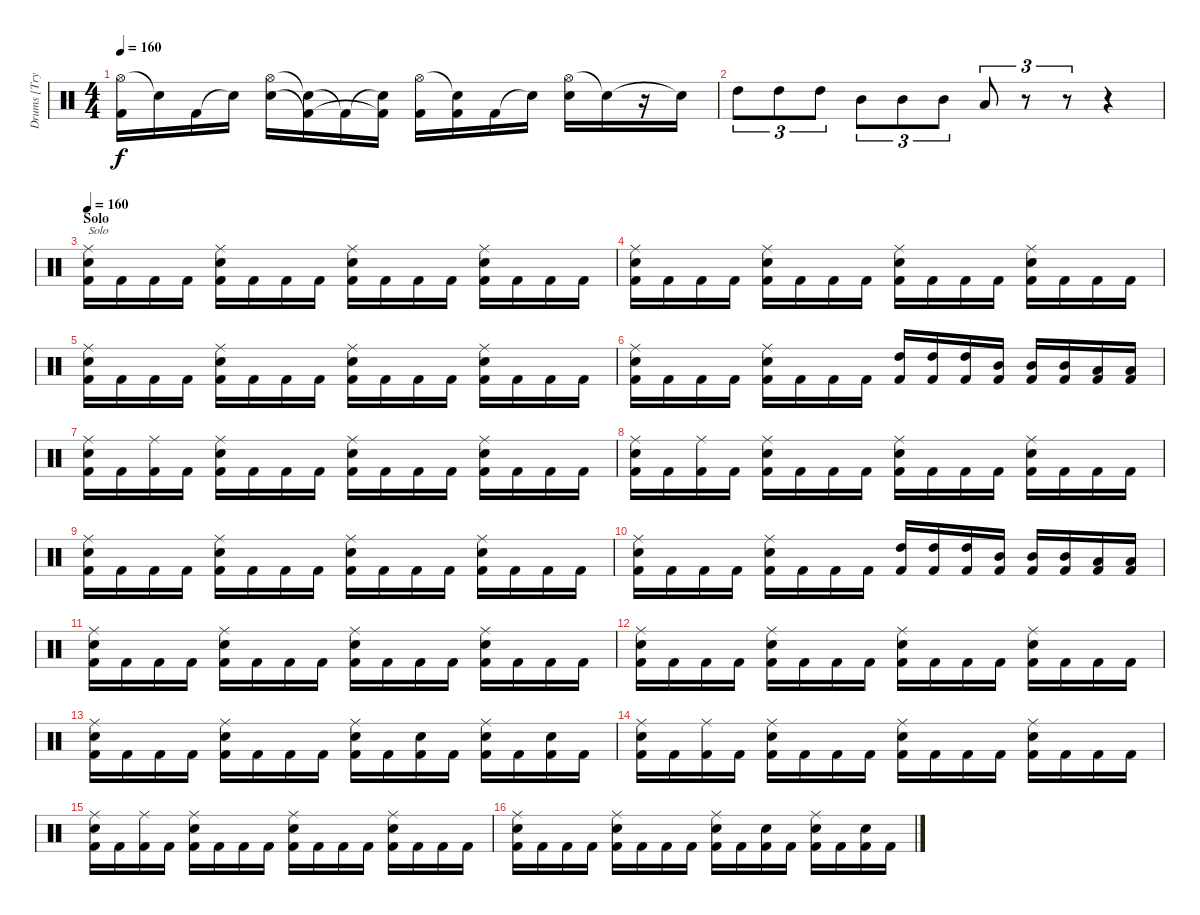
\track ("Drums [Trym]" "Drums [Try") {instrument percussion}
\staff {score}
\articulation defaults
\ts (4 4)
\tempo 160
\clef neutral
\ks c
("Hi-Hat (open)" "Kick (hit) 2").16{dy f} "Snare (hit)"{t}.16 "Kick (hit) 2".16 "Snare (hit)"{t}.16 ("Hi-Hat (open)" "Electric Snare (hit)").16 ("Snare (hit)"{t} "Kick (hit) 2"{t}).16 "Kick (hit) 2"{t}.16 ("Snare (hit)"{t} "Kick (hit) 2"{t}).16 ("Hi-Hat (open)" "Kick (hit) 2").16 ("Snare (hit)"{t} "Kick (hit) 2").16 "Kick (hit) 2".16 "Snare (hit)"{t}.16 ("Hi-Hat (open)" "Electric Snare (hit)").16 "Snare (hit)"{t}.16 r.16 "Snare (hit)"{t}.16 |
"High Tom (hit)".8{tu (3 2)} "High Tom (hit)".8{tu (3 2)} "High Tom (hit)".8{tu (3 2)} "Mid Tom (hit)".8{tu (3 2)} "Mid Tom (hit)".8{tu (3 2)} "Mid Tom (hit)".8{tu (3 2)} "Low Tom (hit)".8{tu (3 2)} r.8{tu (3 2)} r.8{tu (3 2)} r.4 |
\section ("" "Solo")
\tempo 160
("Ride (middle)" "Electric Snare (hit)" "Kick (hit) 2").16{txt "Solo"} "Kick (hit) 2".16 "Kick (hit) 2".16 "Kick (hit) 2".16 ("Ride (middle)" "Electric Snare (hit)" "Kick (hit) 2").16 "Kick (hit) 2".16 "Kick (hit) 2".16 "Kick (hit) 2".16 ("Ride (middle)" "Electric Snare (hit)" "Kick (hit) 2").16 "Kick (hit) 2".16 "Kick (hit) 2".16 "Kick (hit) 2".16 ("Ride (middle)" "Electric Snare (hit)" "Kick (hit) 2").16 "Kick (hit) 2".16 "Kick (hit) 2".16 "Kick (hit) 2".16 |
("Ride (middle)" "Electric Snare (hit)" "Kick (hit) 2").16 "Kick (hit) 2".16 "Kick (hit) 2".16 "Kick (hit) 2".16 ("Ride (middle)" "Electric Snare (hit)" "Kick (hit) 2").16 "Kick (hit) 2".16 "Kick (hit) 2".16 "Kick (hit) 2".16 ("Ride (middle)" "Electric Snare (hit)" "Kick (hit) 2").16 "Kick (hit) 2".16 "Kick (hit) 2".16 "Kick (hit) 2".16 ("Ride (middle)" "Electric Snare (hit)" "Kick (hit) 2").16 "Kick (hit) 2".16 "Kick (hit) 2".16 "Kick (hit) 2".16 |
("Ride (middle)" "Electric Snare (hit)" "Kick (hit) 2").16 "Kick (hit) 2".16 "Kick (hit) 2".16 "Kick (hit) 2".16 ("Ride (middle)" "Electric Snare (hit)" "Kick (hit) 2").16 "Kick (hit) 2".16 "Kick (hit) 2".16 "Kick (hit) 2".16 ("Ride (middle)" "Electric Snare (hit)" "Kick (hit) 2").16 "Kick (hit) 2".16 "Kick (hit) 2".16 "Kick (hit) 2".16 ("Ride (middle)" "Electric Snare (hit)" "Kick (hit) 2").16 "Kick (hit) 2".16 "Kick (hit) 2".16 "Kick (hit) 2".16 |
("Ride (middle)" "Electric Snare (hit)" "Kick (hit) 2").16 "Kick (hit) 2".16 "Kick (hit) 2".16 "Kick (hit) 2".16 ("Ride (middle)" "Electric Snare (hit)" "Kick (hit) 2").16 "Kick (hit) 2".16 "Kick (hit) 2".16 "Kick (hit) 2".16 ("High Tom (hit)" "Kick (hit) 2").16 ("High Tom (hit)" "Kick (hit) 2").16 ("High Tom (hit)" "Kick (hit) 2").16 ("Mid Tom (hit)" "Kick (hit) 2").16 ("Mid Tom (hit)" "Kick (hit) 2").16 ("Mid Tom (hit)" "Kick (hit) 2").16 ("Low Tom (hit)" "Kick (hit) 2").16 ("Low Tom (hit)" "Kick (hit) 2").16 |
("Ride (middle)" "Electric Snare (hit)" "Kick (hit) 2").16 "Kick (hit) 2".16 ("Ride (middle)" "Kick (hit) 2").16 "Kick (hit) 2".16 ("Ride (middle)" "Electric Snare (hit)" "Kick (hit) 2").16 "Kick (hit) 2".16 "Kick (hit) 2".16 "Kick (hit) 2".16 ("Ride (middle)" "Electric Snare (hit)" "Kick (hit) 2").16 "Kick (hit) 2".16 "Kick (hit) 2".16 "Kick (hit) 2".16 ("Ride (middle)" "Electric Snare (hit)" "Kick (hit) 2").16 "Kick (hit) 2".16 "Kick (hit) 2".16 "Kick (hit) 2".16 |
("Ride (middle)" "Electric Snare (hit)" "Kick (hit) 2").16 "Kick (hit) 2".16 ("Ride (middle)" "Kick (hit) 2").16 "Kick (hit) 2".16 ("Ride (middle)" "Electric Snare (hit)" "Kick (hit) 2").16 "Kick (hit) 2".16 "Kick (hit) 2".16 "Kick (hit) 2".16 ("Ride (middle)" "Electric Snare (hit)" "Kick (hit) 2").16 "Kick (hit) 2".16 "Kick (hit) 2".16 "Kick (hit) 2".16 ("Ride (middle)" "Electric Snare (hit)" "Kick (hit) 2").16 "Kick (hit) 2".16 "Kick (hit) 2".16 "Kick (hit) 2".16 |
("Ride (middle)" "Electric Snare (hit)" "Kick (hit) 2").16 "Kick (hit) 2".16 "Kick (hit) 2".16 "Kick (hit) 2".16 ("Ride (middle)" "Electric Snare (hit)" "Kick (hit) 2").16 "Kick (hit) 2".16 "Kick (hit) 2".16 "Kick (hit) 2".16 ("Ride (middle)" "Electric Snare (hit)" "Kick (hit) 2").16 "Kick (hit) 2".16 "Kick (hit) 2".16 "Kick (hit) 2".16 ("Ride (middle)" "Electric Snare (hit)" "Kick (hit) 2").16 "Kick (hit) 2".16 "Kick (hit) 2".16 "Kick (hit) 2".16 |
("Ride (middle)" "Electric Snare (hit)" "Kick (hit) 2").16 "Kick (hit) 2".16 "Kick (hit) 2".16 "Kick (hit) 2".16 ("Ride (middle)" "Electric Snare (hit)" "Kick (hit) 2").16 "Kick (hit) 2".16 "Kick (hit) 2".16 "Kick (hit) 2".16 ("High Tom (hit)" "Kick (hit) 2").16 ("High Tom (hit)" "Kick (hit) 2").16 ("High Tom (hit)" "Kick (hit) 2").16 ("Mid Tom (hit)" "Kick (hit) 2").16 ("Mid Tom (hit)" "Kick (hit) 2").16 ("Mid Tom (hit)" "Kick (hit) 2").16 ("Low Tom (hit)" "Kick (hit) 2").16 ("Low Tom (hit)" "Kick (hit) 2").16 |
("Ride (middle)" "Electric Snare (hit)" "Kick (hit) 2").16 "Kick (hit) 2".16 "Kick (hit) 2".16 "Kick (hit) 2".16 ("Ride (middle)" "Electric Snare (hit)" "Kick (hit) 2").16 "Kick (hit) 2".16 "Kick (hit) 2".16 "Kick (hit) 2".16 ("Ride (middle)" "Electric Snare (hit)" "Kick (hit) 2").16 "Kick (hit) 2".16 "Kick (hit) 2".16 "Kick (hit) 2".16 ("Ride (middle)" "Electric Snare (hit)" "Kick (hit) 2").16 "Kick (hit) 2".16 "Kick (hit) 2".16 "Kick (hit) 2".16 |
("Ride (middle)" "Electric Snare (hit)" "Kick (hit) 2").16 "Kick (hit) 2".16 "Kick (hit) 2".16 "Kick (hit) 2".16 ("Ride (middle)" "Electric Snare (hit)" "Kick (hit) 2").16 "Kick (hit) 2".16 "Kick (hit) 2".16 "Kick (hit) 2".16 ("Ride (middle)" "Electric Snare (hit)" "Kick (hit) 2").16 "Kick (hit) 2".16 "Kick (hit) 2".16 "Kick (hit) 2".16 ("Ride (middle)" "Electric Snare (hit)" "Kick (hit) 2").16 "Kick (hit) 2".16 "Kick (hit) 2".16 "Kick (hit) 2".16 |
("Ride (middle)" "Electric Snare (hit)" "Kick (hit) 2").16 "Kick (hit) 2".16 "Kick (hit) 2".16 "Kick (hit) 2".16 ("Ride (middle)" "Electric Snare (hit)" "Kick (hit) 2").16 "Kick (hit) 2".16 "Kick (hit) 2".16 "Kick (hit) 2".16 ("Ride (middle)" "Electric Snare (hit)" "Kick (hit) 2").16 "Kick (hit) 2".16 ("Electric Snare (hit)" "Kick (hit) 2").16 "Kick (hit) 2".16 ("Ride (middle)" "Electric Snare (hit)" "Kick (hit) 2").16 "Kick (hit) 2".16 ("Electric Snare (hit)" "Kick (hit) 2").16 "Kick (hit) 2".16 |
("Ride (middle)" "Electric Snare (hit)" "Kick (hit) 2").16 "Kick (hit) 2".16 ("Ride (middle)" "Kick (hit) 2").16 "Kick (hit) 2".16 ("Ride (middle)" "Electric Snare (hit)" "Kick (hit) 2").16 "Kick (hit) 2".16 "Kick (hit) 2".16 "Kick (hit) 2".16 ("Ride (middle)" "Electric Snare (hit)" "Kick (hit) 2").16 "Kick (hit) 2".16 "Kick (hit) 2".16 "Kick (hit) 2".16 ("Ride (middle)" "Electric Snare (hit)" "Kick (hit) 2").16 "Kick (hit) 2".16 "Kick (hit) 2".16 "Kick (hit) 2".16 |
("Ride (middle)" "Electric Snare (hit)" "Kick (hit) 2").16 "Kick (hit) 2".16 ("Ride (middle)" "Kick (hit) 2").16 "Kick (hit) 2".16 ("Ride (middle)" "Electric Snare (hit)" "Kick (hit) 2").16 "Kick (hit) 2".16 "Kick (hit) 2".16 "Kick (hit) 2".16 ("Ride (middle)" "Electric Snare (hit)" "Kick (hit) 2").16 "Kick (hit) 2".16 "Kick (hit) 2".16 "Kick (hit) 2".16 ("Ride (middle)" "Electric Snare (hit)" "Kick (hit) 2").16 "Kick (hit) 2".16 "Kick (hit) 2".16 "Kick (hit) 2".16 |
("Ride (middle)" "Electric Snare (hit)" "Kick (hit) 2").16 "Kick (hit) 2".16 "Kick (hit) 2".16 "Kick (hit) 2".16 ("Ride (middle)" "Electric Snare (hit)" "Kick (hit) 2").16 "Kick (hit) 2".16 "Kick (hit) 2".16 "Kick (hit) 2".16 ("Ride (middle)" "Electric Snare (hit)" "Kick (hit) 2").16 "Kick (hit) 2".16 ("Electric Snare (hit)" "Kick (hit) 2").16 "Kick (hit) 2".16 ("Ride (middle)" "Electric Snare (hit)" "Kick (hit) 2").16 "Kick (hit) 2".16 ("Electric Snare (hit)" "Kick (hit) 2").16 "Kick (hit) 2".16
